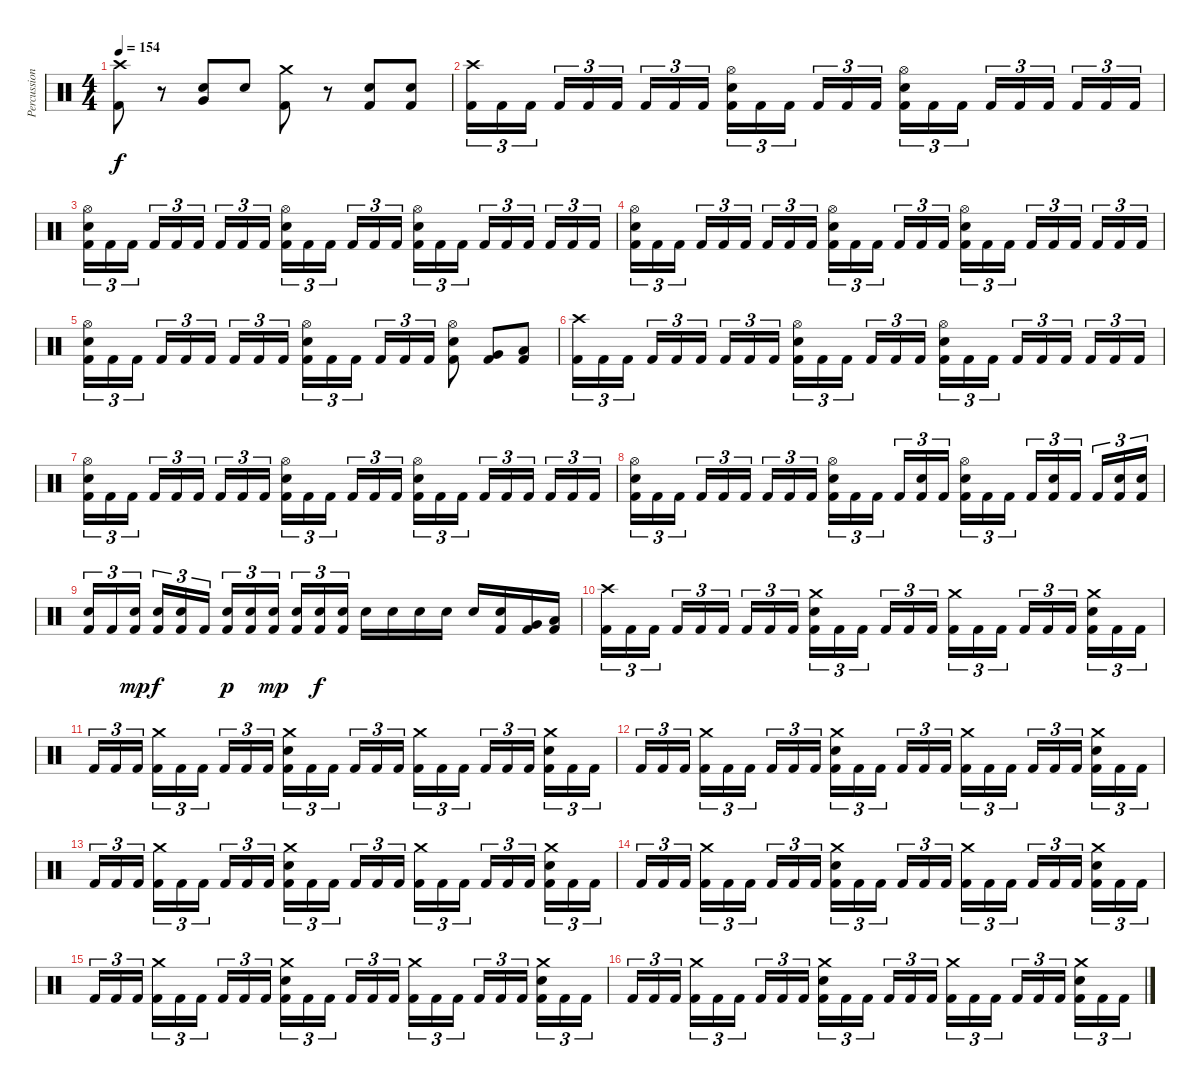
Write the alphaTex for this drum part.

\track ("Percussion" "Percussion") {instrument percussion}
\staff {score}
\articulation defaults
\ts (4 4)
\tempo 154
\clef neutral
\ks c
("Crash high (hit)" "Kick (hit) 2").8{dy f} r.8 ("Electric Snare (hit)" "Very Low Tom (hit)").8 "Electric Snare (hit)".8 ("Crash medium (hit)" "Kick (hit) 2").8 r.8 ("Electric Snare (hit)" "Kick (hit) 2").8 ("Electric Snare (hit)" "Kick (hit) 2").8 |
("Crash high (hit)" "Kick (hit) 2").16{tu (3 2)} "Kick (hit) 2".16{tu (3 2)} "Kick (hit) 2".16{tu (3 2) beam splitsecondary} "Kick (hit) 2".16{tu (3 2)} "Kick (hit) 2".16{tu (3 2)} "Kick (hit) 2".16{tu (3 2)} "Kick (hit) 2".16{tu (3 2)} "Kick (hit) 2".16{tu (3 2)} "Kick (hit) 2".16{tu (3 2) beam splitsecondary} ("Hi-Hat (open)" "Electric Snare (hit)" "Kick (hit) 2").16{tu (3 2)} "Kick (hit) 2".16{tu (3 2)} "Kick (hit) 2".16{tu (3 2)} "Kick (hit) 2".16{tu (3 2)} "Kick (hit) 2".16{tu (3 2)} "Kick (hit) 2".16{tu (3 2) beam splitsecondary} ("Hi-Hat (open)" "Electric Snare (hit)" "Kick (hit) 2").16{tu (3 2)} "Kick (hit) 2".16{tu (3 2)} "Kick (hit) 2".16{tu (3 2)} "Kick (hit) 2".16{tu (3 2)} "Kick (hit) 2".16{tu (3 2)} "Kick (hit) 2".16{tu (3 2) beam splitsecondary} "Kick (hit) 2".16{tu (3 2)} "Kick (hit) 2".16{tu (3 2)} "Kick (hit) 2".16{tu (3 2)} |
("Hi-Hat (open)" "Electric Snare (hit)" "Kick (hit) 2").16{tu (3 2)} "Kick (hit) 2".16{tu (3 2)} "Kick (hit) 2".16{tu (3 2) beam splitsecondary} "Kick (hit) 2".16{tu (3 2)} "Kick (hit) 2".16{tu (3 2)} "Kick (hit) 2".16{tu (3 2)} "Kick (hit) 2".16{tu (3 2)} "Kick (hit) 2".16{tu (3 2)} "Kick (hit) 2".16{tu (3 2) beam splitsecondary} ("Hi-Hat (open)" "Electric Snare (hit)" "Kick (hit) 2").16{tu (3 2)} "Kick (hit) 2".16{tu (3 2)} "Kick (hit) 2".16{tu (3 2)} "Kick (hit) 2".16{tu (3 2)} "Kick (hit) 2".16{tu (3 2)} "Kick (hit) 2".16{tu (3 2) beam splitsecondary} ("Hi-Hat (open)" "Electric Snare (hit)" "Kick (hit) 2").16{tu (3 2)} "Kick (hit) 2".16{tu (3 2)} "Kick (hit) 2".16{tu (3 2)} "Kick (hit) 2".16{tu (3 2)} "Kick (hit) 2".16{tu (3 2)} "Kick (hit) 2".16{tu (3 2) beam splitsecondary} "Kick (hit) 2".16{tu (3 2)} "Kick (hit) 2".16{tu (3 2)} "Kick (hit) 2".16{tu (3 2)} |
("Hi-Hat (open)" "Electric Snare (hit)" "Kick (hit) 2").16{tu (3 2)} "Kick (hit) 2".16{tu (3 2)} "Kick (hit) 2".16{tu (3 2) beam splitsecondary} "Kick (hit) 2".16{tu (3 2)} "Kick (hit) 2".16{tu (3 2)} "Kick (hit) 2".16{tu (3 2)} "Kick (hit) 2".16{tu (3 2)} "Kick (hit) 2".16{tu (3 2)} "Kick (hit) 2".16{tu (3 2) beam splitsecondary} ("Hi-Hat (open)" "Electric Snare (hit)" "Kick (hit) 2").16{tu (3 2)} "Kick (hit) 2".16{tu (3 2)} "Kick (hit) 2".16{tu (3 2)} "Kick (hit) 2".16{tu (3 2)} "Kick (hit) 2".16{tu (3 2)} "Kick (hit) 2".16{tu (3 2) beam splitsecondary} ("Hi-Hat (open)" "Electric Snare (hit)" "Kick (hit) 2").16{tu (3 2)} "Kick (hit) 2".16{tu (3 2)} "Kick (hit) 2".16{tu (3 2)} "Kick (hit) 2".16{tu (3 2)} "Kick (hit) 2".16{tu (3 2)} "Kick (hit) 2".16{tu (3 2) beam splitsecondary} "Kick (hit) 2".16{tu (3 2)} "Kick (hit) 2".16{tu (3 2)} "Kick (hit) 2".16{tu (3 2)} |
("Hi-Hat (open)" "Electric Snare (hit)" "Kick (hit) 2").16{tu (3 2)} "Kick (hit) 2".16{tu (3 2)} "Kick (hit) 2".16{tu (3 2) beam splitsecondary} "Kick (hit) 2".16{tu (3 2)} "Kick (hit) 2".16{tu (3 2)} "Kick (hit) 2".16{tu (3 2)} "Kick (hit) 2".16{tu (3 2)} "Kick (hit) 2".16{tu (3 2)} "Kick (hit) 2".16{tu (3 2) beam splitsecondary} ("Hi-Hat (open)" "Electric Snare (hit)" "Kick (hit) 2").16{tu (3 2)} "Kick (hit) 2".16{tu (3 2)} "Kick (hit) 2".16{tu (3 2)} "Kick (hit) 2".16{tu (3 2)} "Kick (hit) 2".16{tu (3 2)} "Kick (hit) 2".16{tu (3 2)} ("Hi-Hat (open)" "Electric Snare (hit)" "Kick (hit) 2").8 ("Very Low Tom (hit)" "Kick (hit) 2").8 ("Low Floor Tom (hit)" "Kick (hit) 2").8 |
("Crash high (hit)" "Kick (hit) 2").16{tu (3 2)} "Kick (hit) 2".16{tu (3 2)} "Kick (hit) 2".16{tu (3 2) beam splitsecondary} "Kick (hit) 2".16{tu (3 2)} "Kick (hit) 2".16{tu (3 2)} "Kick (hit) 2".16{tu (3 2)} "Kick (hit) 2".16{tu (3 2)} "Kick (hit) 2".16{tu (3 2)} "Kick (hit) 2".16{tu (3 2) beam splitsecondary} ("Hi-Hat (open)" "Electric Snare (hit)" "Kick (hit) 2").16{tu (3 2)} "Kick (hit) 2".16{tu (3 2)} "Kick (hit) 2".16{tu (3 2)} "Kick (hit) 2".16{tu (3 2)} "Kick (hit) 2".16{tu (3 2)} "Kick (hit) 2".16{tu (3 2) beam splitsecondary} ("Hi-Hat (open)" "Electric Snare (hit)" "Kick (hit) 2").16{tu (3 2)} "Kick (hit) 2".16{tu (3 2)} "Kick (hit) 2".16{tu (3 2)} "Kick (hit) 2".16{tu (3 2)} "Kick (hit) 2".16{tu (3 2)} "Kick (hit) 2".16{tu (3 2) beam splitsecondary} "Kick (hit) 2".16{tu (3 2)} "Kick (hit) 2".16{tu (3 2)} "Kick (hit) 2".16{tu (3 2)} |
("Hi-Hat (open)" "Electric Snare (hit)" "Kick (hit) 2").16{tu (3 2)} "Kick (hit) 2".16{tu (3 2)} "Kick (hit) 2".16{tu (3 2) beam splitsecondary} "Kick (hit) 2".16{tu (3 2)} "Kick (hit) 2".16{tu (3 2)} "Kick (hit) 2".16{tu (3 2)} "Kick (hit) 2".16{tu (3 2)} "Kick (hit) 2".16{tu (3 2)} "Kick (hit) 2".16{tu (3 2) beam splitsecondary} ("Hi-Hat (open)" "Electric Snare (hit)" "Kick (hit) 2").16{tu (3 2)} "Kick (hit) 2".16{tu (3 2)} "Kick (hit) 2".16{tu (3 2)} "Kick (hit) 2".16{tu (3 2)} "Kick (hit) 2".16{tu (3 2)} "Kick (hit) 2".16{tu (3 2) beam splitsecondary} ("Hi-Hat (open)" "Electric Snare (hit)" "Kick (hit) 2").16{tu (3 2)} "Kick (hit) 2".16{tu (3 2)} "Kick (hit) 2".16{tu (3 2)} "Kick (hit) 2".16{tu (3 2)} "Kick (hit) 2".16{tu (3 2)} "Kick (hit) 2".16{tu (3 2) beam splitsecondary} "Kick (hit) 2".16{tu (3 2)} "Kick (hit) 2".16{tu (3 2)} "Kick (hit) 2".16{tu (3 2)} |
("Hi-Hat (open)" "Electric Snare (hit)" "Kick (hit) 2").16{tu (3 2)} "Kick (hit) 2".16{tu (3 2)} "Kick (hit) 2".16{tu (3 2) beam splitsecondary} "Kick (hit) 2".16{tu (3 2)} "Kick (hit) 2".16{tu (3 2)} "Kick (hit) 2".16{tu (3 2)} "Kick (hit) 2".16{tu (3 2)} "Kick (hit) 2".16{tu (3 2)} "Kick (hit) 2".16{tu (3 2) beam splitsecondary} ("Hi-Hat (open)" "Electric Snare (hit)" "Kick (hit) 2").16{tu (3 2)} "Kick (hit) 2".16{tu (3 2)} "Kick (hit) 2".16{tu (3 2)} "Kick (hit) 2".16{tu (3 2)} ("Electric Snare (hit)" "Kick (hit) 2").16{tu (3 2)} "Kick (hit) 2".16{tu (3 2) beam splitsecondary} ("Hi-Hat (open)" "Electric Snare (hit)" "Kick (hit) 2").16{tu (3 2)} "Kick (hit) 2".16{tu (3 2)} "Kick (hit) 2".16{tu (3 2)} "Kick (hit) 2".16{tu (3 2)} ("Electric Snare (hit)" "Kick (hit) 2").16{tu (3 2)} "Kick (hit) 2".16{tu (3 2) beam splitsecondary} "Kick (hit) 2".16{tu (3 2)} ("Electric Snare (hit)" "Kick (hit) 2").16{tu (3 2)} ("Electric Snare (hit)" "Kick (hit) 2").16{tu (3 2)} |
("Electric Snare (hit)" "Kick (hit) 2").16{tu (3 2)} "Kick (hit) 2".16{tu (3 2)} ("Electric Snare (hit)" "Kick (hit) 2").16{tu (3 2) dy mp beam splitsecondary} ("Electric Snare (hit)" "Kick (hit) 2").16{tu (3 2) dy f} ("Electric Snare (hit)" "Kick (hit) 2").16{tu (3 2)} "Kick (hit) 2".16{tu (3 2)} ("Electric Snare (hit)" "Kick (hit) 2").16{tu (3 2) dy p} ("Electric Snare (hit)" "Kick (hit) 2").16{tu (3 2)} ("Electric Snare (hit)" "Kick (hit) 2").16{tu (3 2) dy mp beam splitsecondary} ("Electric Snare (hit)" "Kick (hit) 2").16{tu (3 2)} ("Electric Snare (hit)" "Kick (hit) 2").16{tu (3 2) dy f} ("Electric Snare (hit)" "Kick (hit) 2").16{tu (3 2)} "Electric Snare (hit)".16 "Electric Snare (hit)".16 "Electric Snare (hit)".16 "Electric Snare (hit)".16 "Electric Snare (hit)".16 ("Electric Snare (hit)" "Kick (hit) 2").16 ("Very Low Tom (hit)" "Kick (hit) 2").16 ("Low Floor Tom (hit)" "Kick (hit) 2").16 |
("Crash high (hit)" "Kick (hit) 2").16{tu (3 2)} "Kick (hit) 2".16{tu (3 2)} "Kick (hit) 2".16{tu (3 2) beam splitsecondary} "Kick (hit) 2".16{tu (3 2)} "Kick (hit) 2".16{tu (3 2)} "Kick (hit) 2".16{tu (3 2)} "Kick (hit) 2".16{tu (3 2)} "Kick (hit) 2".16{tu (3 2)} "Kick (hit) 2".16{tu (3 2) beam splitsecondary} ("Crash medium (hit)" "Electric Snare (hit)" "Kick (hit) 2").16{tu (3 2)} "Kick (hit) 2".16{tu (3 2)} "Kick (hit) 2".16{tu (3 2)} "Kick (hit) 2".16{tu (3 2)} "Kick (hit) 2".16{tu (3 2)} "Kick (hit) 2".16{tu (3 2) beam splitsecondary} ("Crash medium (hit)" "Kick (hit) 2").16{tu (3 2)} "Kick (hit) 2".16{tu (3 2)} "Kick (hit) 2".16{tu (3 2)} "Kick (hit) 2".16{tu (3 2)} "Kick (hit) 2".16{tu (3 2)} "Kick (hit) 2".16{tu (3 2) beam splitsecondary} ("Crash medium (hit)" "Electric Snare (hit)" "Kick (hit) 2").16{tu (3 2)} "Kick (hit) 2".16{tu (3 2)} "Kick (hit) 2".16{tu (3 2)} |
"Kick (hit) 2".16{tu (3 2)} "Kick (hit) 2".16{tu (3 2)} "Kick (hit) 2".16{tu (3 2) beam splitsecondary} ("Crash medium (hit)" "Kick (hit) 2").16{tu (3 2)} "Kick (hit) 2".16{tu (3 2)} "Kick (hit) 2".16{tu (3 2)} "Kick (hit) 2".16{tu (3 2)} "Kick (hit) 2".16{tu (3 2)} "Kick (hit) 2".16{tu (3 2) beam splitsecondary} ("Crash medium (hit)" "Electric Snare (hit)" "Kick (hit) 2").16{tu (3 2)} "Kick (hit) 2".16{tu (3 2)} "Kick (hit) 2".16{tu (3 2)} "Kick (hit) 2".16{tu (3 2)} "Kick (hit) 2".16{tu (3 2)} "Kick (hit) 2".16{tu (3 2) beam splitsecondary} ("Crash medium (hit)" "Kick (hit) 2").16{tu (3 2)} "Kick (hit) 2".16{tu (3 2)} "Kick (hit) 2".16{tu (3 2)} "Kick (hit) 2".16{tu (3 2)} "Kick (hit) 2".16{tu (3 2)} "Kick (hit) 2".16{tu (3 2) beam splitsecondary} ("Crash medium (hit)" "Electric Snare (hit)" "Kick (hit) 2").16{tu (3 2)} "Kick (hit) 2".16{tu (3 2)} "Kick (hit) 2".16{tu (3 2)} |
"Kick (hit) 2".16{tu (3 2)} "Kick (hit) 2".16{tu (3 2)} "Kick (hit) 2".16{tu (3 2) beam splitsecondary} ("Crash medium (hit)" "Kick (hit) 2").16{tu (3 2)} "Kick (hit) 2".16{tu (3 2)} "Kick (hit) 2".16{tu (3 2)} "Kick (hit) 2".16{tu (3 2)} "Kick (hit) 2".16{tu (3 2)} "Kick (hit) 2".16{tu (3 2) beam splitsecondary} ("Crash medium (hit)" "Electric Snare (hit)" "Kick (hit) 2").16{tu (3 2)} "Kick (hit) 2".16{tu (3 2)} "Kick (hit) 2".16{tu (3 2)} "Kick (hit) 2".16{tu (3 2)} "Kick (hit) 2".16{tu (3 2)} "Kick (hit) 2".16{tu (3 2) beam splitsecondary} ("Crash medium (hit)" "Kick (hit) 2").16{tu (3 2)} "Kick (hit) 2".16{tu (3 2)} "Kick (hit) 2".16{tu (3 2)} "Kick (hit) 2".16{tu (3 2)} "Kick (hit) 2".16{tu (3 2)} "Kick (hit) 2".16{tu (3 2) beam splitsecondary} ("Crash medium (hit)" "Electric Snare (hit)" "Kick (hit) 2").16{tu (3 2)} "Kick (hit) 2".16{tu (3 2)} "Kick (hit) 2".16{tu (3 2)} |
"Kick (hit) 2".16{tu (3 2)} "Kick (hit) 2".16{tu (3 2)} "Kick (hit) 2".16{tu (3 2) beam splitsecondary} ("Crash medium (hit)" "Kick (hit) 2").16{tu (3 2)} "Kick (hit) 2".16{tu (3 2)} "Kick (hit) 2".16{tu (3 2)} "Kick (hit) 2".16{tu (3 2)} "Kick (hit) 2".16{tu (3 2)} "Kick (hit) 2".16{tu (3 2) beam splitsecondary} ("Crash medium (hit)" "Electric Snare (hit)" "Kick (hit) 2").16{tu (3 2)} "Kick (hit) 2".16{tu (3 2)} "Kick (hit) 2".16{tu (3 2)} "Kick (hit) 2".16{tu (3 2)} "Kick (hit) 2".16{tu (3 2)} "Kick (hit) 2".16{tu (3 2) beam splitsecondary} ("Crash medium (hit)" "Kick (hit) 2").16{tu (3 2)} "Kick (hit) 2".16{tu (3 2)} "Kick (hit) 2".16{tu (3 2)} "Kick (hit) 2".16{tu (3 2)} "Kick (hit) 2".16{tu (3 2)} "Kick (hit) 2".16{tu (3 2) beam splitsecondary} ("Crash medium (hit)" "Electric Snare (hit)" "Kick (hit) 2").16{tu (3 2)} "Kick (hit) 2".16{tu (3 2)} "Kick (hit) 2".16{tu (3 2)} |
"Kick (hit) 2".16{tu (3 2)} "Kick (hit) 2".16{tu (3 2)} "Kick (hit) 2".16{tu (3 2) beam splitsecondary} ("Crash medium (hit)" "Kick (hit) 2").16{tu (3 2)} "Kick (hit) 2".16{tu (3 2)} "Kick (hit) 2".16{tu (3 2)} "Kick (hit) 2".16{tu (3 2)} "Kick (hit) 2".16{tu (3 2)} "Kick (hit) 2".16{tu (3 2) beam splitsecondary} ("Crash medium (hit)" "Electric Snare (hit)" "Kick (hit) 2").16{tu (3 2)} "Kick (hit) 2".16{tu (3 2)} "Kick (hit) 2".16{tu (3 2)} "Kick (hit) 2".16{tu (3 2)} "Kick (hit) 2".16{tu (3 2)} "Kick (hit) 2".16{tu (3 2) beam splitsecondary} ("Crash medium (hit)" "Kick (hit) 2").16{tu (3 2)} "Kick (hit) 2".16{tu (3 2)} "Kick (hit) 2".16{tu (3 2)} "Kick (hit) 2".16{tu (3 2)} "Kick (hit) 2".16{tu (3 2)} "Kick (hit) 2".16{tu (3 2) beam splitsecondary} ("Crash medium (hit)" "Electric Snare (hit)" "Kick (hit) 2").16{tu (3 2)} "Kick (hit) 2".16{tu (3 2)} "Kick (hit) 2".16{tu (3 2)} |
"Kick (hit) 2".16{tu (3 2)} "Kick (hit) 2".16{tu (3 2)} "Kick (hit) 2".16{tu (3 2) beam splitsecondary} ("Crash medium (hit)" "Kick (hit) 2").16{tu (3 2)} "Kick (hit) 2".16{tu (3 2)} "Kick (hit) 2".16{tu (3 2)} "Kick (hit) 2".16{tu (3 2)} "Kick (hit) 2".16{tu (3 2)} "Kick (hit) 2".16{tu (3 2) beam splitsecondary} ("Crash medium (hit)" "Electric Snare (hit)" "Kick (hit) 2").16{tu (3 2)} "Kick (hit) 2".16{tu (3 2)} "Kick (hit) 2".16{tu (3 2)} "Kick (hit) 2".16{tu (3 2)} "Kick (hit) 2".16{tu (3 2)} "Kick (hit) 2".16{tu (3 2) beam splitsecondary} ("Crash medium (hit)" "Kick (hit) 2").16{tu (3 2)} "Kick (hit) 2".16{tu (3 2)} "Kick (hit) 2".16{tu (3 2)} "Kick (hit) 2".16{tu (3 2)} "Kick (hit) 2".16{tu (3 2)} "Kick (hit) 2".16{tu (3 2) beam splitsecondary} ("Crash medium (hit)" "Electric Snare (hit)" "Kick (hit) 2").16{tu (3 2)} "Kick (hit) 2".16{tu (3 2)} "Kick (hit) 2".16{tu (3 2)} |
"Kick (hit) 2".16{tu (3 2)} "Kick (hit) 2".16{tu (3 2)} "Kick (hit) 2".16{tu (3 2) beam splitsecondary} ("Crash medium (hit)" "Kick (hit) 2").16{tu (3 2)} "Kick (hit) 2".16{tu (3 2)} "Kick (hit) 2".16{tu (3 2)} "Kick (hit) 2".16{tu (3 2)} "Kick (hit) 2".16{tu (3 2)} "Kick (hit) 2".16{tu (3 2) beam splitsecondary} ("Crash medium (hit)" "Electric Snare (hit)" "Kick (hit) 2").16{tu (3 2)} "Kick (hit) 2".16{tu (3 2)} "Kick (hit) 2".16{tu (3 2)} "Kick (hit) 2".16{tu (3 2)} "Kick (hit) 2".16{tu (3 2)} "Kick (hit) 2".16{tu (3 2) beam splitsecondary} ("Crash medium (hit)" "Kick (hit) 2").16{tu (3 2)} "Kick (hit) 2".16{tu (3 2)} "Kick (hit) 2".16{tu (3 2)} "Kick (hit) 2".16{tu (3 2)} "Kick (hit) 2".16{tu (3 2)} "Kick (hit) 2".16{tu (3 2) beam splitsecondary} ("Crash medium (hit)" "Electric Snare (hit)" "Kick (hit) 2").16{tu (3 2)} "Kick (hit) 2".16{tu (3 2)} "Kick (hit) 2".16{tu (3 2)}
